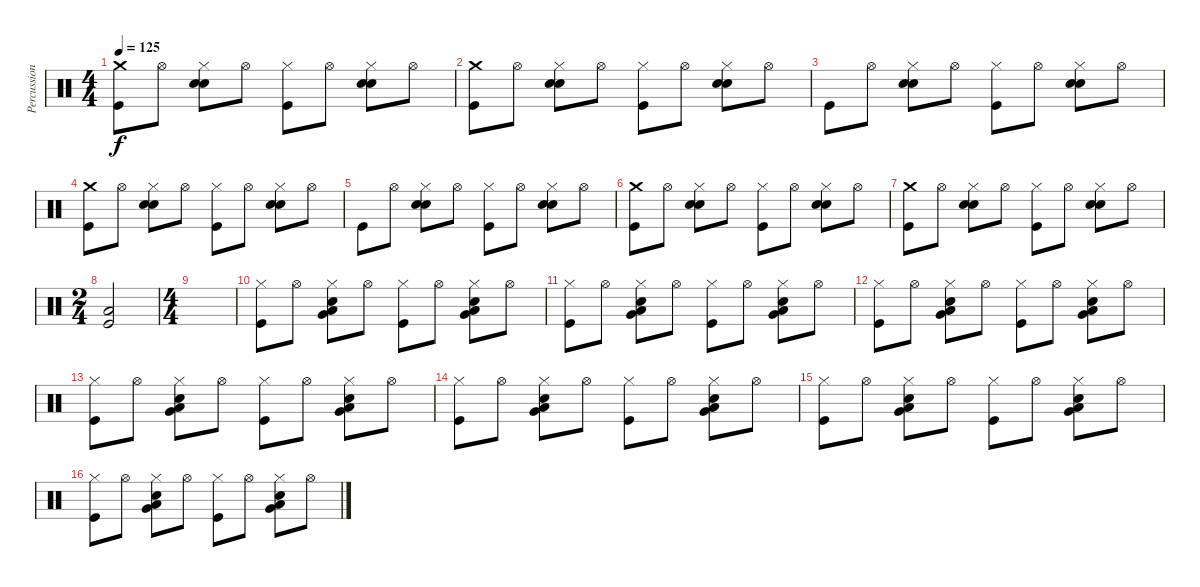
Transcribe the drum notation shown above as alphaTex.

\track ("Percussions" "Percussion") {instrument percussion}
\staff {score}
\articulation defaults
\ts (4 4)
\tempo 125
\clef neutral
\ks c
("Crash medium (hit)" "Kick (hit)").8{dy f} "Hi-Hat (open)".8 ("Snare (hit) 2" "Hi-Hat (closed)" "Hand Clap (hit)").8 "Hi-Hat (open)".8 ("Hi-Hat (closed)" "Kick (hit)").8 "Hi-Hat (open)".8 ("Snare (hit) 2" "Hi-Hat (closed)" "Hand Clap (hit)").8 "Hi-Hat (open)".8 |
("Crash medium (hit)" "Kick (hit)").8{volume 10} "Hi-Hat (open)".8 ("Snare (hit) 2" "Hi-Hat (closed)" "Hand Clap (hit)").8 "Hi-Hat (open)".8 ("Hi-Hat (closed)" "Kick (hit)").8 "Hi-Hat (open)".8 ("Snare (hit) 2" "Hi-Hat (closed)" "Hand Clap (hit)").8 "Hi-Hat (open)".8 |
"Kick (hit)".8 "Hi-Hat (open)".8 ("Snare (hit) 2" "Hi-Hat (closed)" "Hand Clap (hit)").8 "Hi-Hat (open)".8 ("Hi-Hat (closed)" "Kick (hit)").8 "Hi-Hat (open)".8 ("Snare (hit) 2" "Hi-Hat (closed)" "Hand Clap (hit)").8 "Hi-Hat (open)".8 |
("Crash medium (hit)" "Kick (hit)").8{volume 10} "Hi-Hat (open)".8 ("Snare (hit) 2" "Hi-Hat (closed)" "Hand Clap (hit)").8 "Hi-Hat (open)".8 ("Hi-Hat (closed)" "Kick (hit)").8 "Hi-Hat (open)".8 ("Snare (hit) 2" "Hi-Hat (closed)" "Hand Clap (hit)").8 "Hi-Hat (open)".8 |
"Kick (hit)".8 "Hi-Hat (open)".8 ("Snare (hit) 2" "Hi-Hat (closed)" "Hand Clap (hit)").8 "Hi-Hat (open)".8 ("Hi-Hat (closed)" "Kick (hit)").8 "Hi-Hat (open)".8 ("Snare (hit) 2" "Hi-Hat (closed)" "Hand Clap (hit)").8 "Hi-Hat (open)".8 |
("Crash medium (hit)" "Kick (hit)").8{volume 10} "Hi-Hat (open)".8 ("Snare (hit) 2" "Hi-Hat (closed)" "Hand Clap (hit)").8 "Hi-Hat (open)".8 ("Hi-Hat (closed)" "Kick (hit)").8 "Hi-Hat (open)".8 ("Snare (hit) 2" "Hi-Hat (closed)" "Hand Clap (hit)").8 "Hi-Hat (open)".8 |
("Crash medium (hit)" "Kick (hit)").8 "Hi-Hat (open)".8 ("Snare (hit) 2" "Hi-Hat (closed)" "Hand Clap (hit)").8 "Hi-Hat (open)".8 ("Hi-Hat (closed)" "Kick (hit)").8 "Hi-Hat (open)".8 ("Snare (hit) 2" "Hi-Hat (closed)" "Hand Clap (hit)").8 "Hi-Hat (open)".8 |
\ts (2 4)
("Low Floor Tom (hit)" "Kick (hit)").2 |
\ts (4 4)
|
("Hi-Hat (closed)" "Kick (hit)").8 "Hi-Hat (open)".8 ("Hi-Hat (closed)" "Very Low Tom (hit)" "Low Floor Tom (hit)" "Snare (hit) 2").8 "Hi-Hat (open)".8 ("Hi-Hat (closed)" "Kick (hit)").8 "Hi-Hat (open)".8 ("Hi-Hat (closed)" "Very Low Tom (hit)" "Low Floor Tom (hit)" "Snare (hit) 2").8 "Hi-Hat (open)".8 |
("Hi-Hat (closed)" "Kick (hit)").8 "Hi-Hat (open)".8 ("Hi-Hat (closed)" "Very Low Tom (hit)" "Low Floor Tom (hit)" "Snare (hit) 2").8 "Hi-Hat (open)".8 ("Hi-Hat (closed)" "Kick (hit)").8 "Hi-Hat (open)".8 ("Hi-Hat (closed)" "Very Low Tom (hit)" "Low Floor Tom (hit)" "Snare (hit) 2").8 "Hi-Hat (open)".8 |
("Hi-Hat (closed)" "Kick (hit)").8 "Hi-Hat (open)".8 ("Hi-Hat (closed)" "Very Low Tom (hit)" "Low Floor Tom (hit)" "Snare (hit) 2").8 "Hi-Hat (open)".8 ("Hi-Hat (closed)" "Kick (hit)").8 "Hi-Hat (open)".8 ("Hi-Hat (closed)" "Very Low Tom (hit)" "Low Floor Tom (hit)" "Snare (hit) 2").8 "Hi-Hat (open)".8 |
("Hi-Hat (closed)" "Kick (hit)").8 "Hi-Hat (open)".8 ("Hi-Hat (closed)" "Very Low Tom (hit)" "Low Floor Tom (hit)" "Snare (hit) 2").8 "Hi-Hat (open)".8 ("Hi-Hat (closed)" "Kick (hit)").8 "Hi-Hat (open)".8 ("Hi-Hat (closed)" "Very Low Tom (hit)" "Low Floor Tom (hit)" "Snare (hit) 2").8 "Hi-Hat (open)".8 |
("Hi-Hat (closed)" "Kick (hit)").8 "Hi-Hat (open)".8 ("Hi-Hat (closed)" "Very Low Tom (hit)" "Low Floor Tom (hit)" "Snare (hit) 2").8 "Hi-Hat (open)".8 ("Hi-Hat (closed)" "Kick (hit)").8 "Hi-Hat (open)".8 ("Hi-Hat (closed)" "Very Low Tom (hit)" "Low Floor Tom (hit)" "Snare (hit) 2").8 "Hi-Hat (open)".8 |
("Hi-Hat (closed)" "Kick (hit)").8 "Hi-Hat (open)".8 ("Hi-Hat (closed)" "Very Low Tom (hit)" "Low Floor Tom (hit)" "Snare (hit) 2").8 "Hi-Hat (open)".8 ("Hi-Hat (closed)" "Kick (hit)").8 "Hi-Hat (open)".8 ("Hi-Hat (closed)" "Very Low Tom (hit)" "Low Floor Tom (hit)" "Snare (hit) 2").8 "Hi-Hat (open)".8 |
("Hi-Hat (closed)" "Kick (hit)").8 "Hi-Hat (open)".8 ("Hi-Hat (closed)" "Very Low Tom (hit)" "Low Floor Tom (hit)" "Snare (hit) 2").8 "Hi-Hat (open)".8 ("Hi-Hat (closed)" "Kick (hit)").8 "Hi-Hat (open)".8 ("Hi-Hat (closed)" "Very Low Tom (hit)" "Low Floor Tom (hit)" "Snare (hit) 2").8 "Hi-Hat (open)".8
